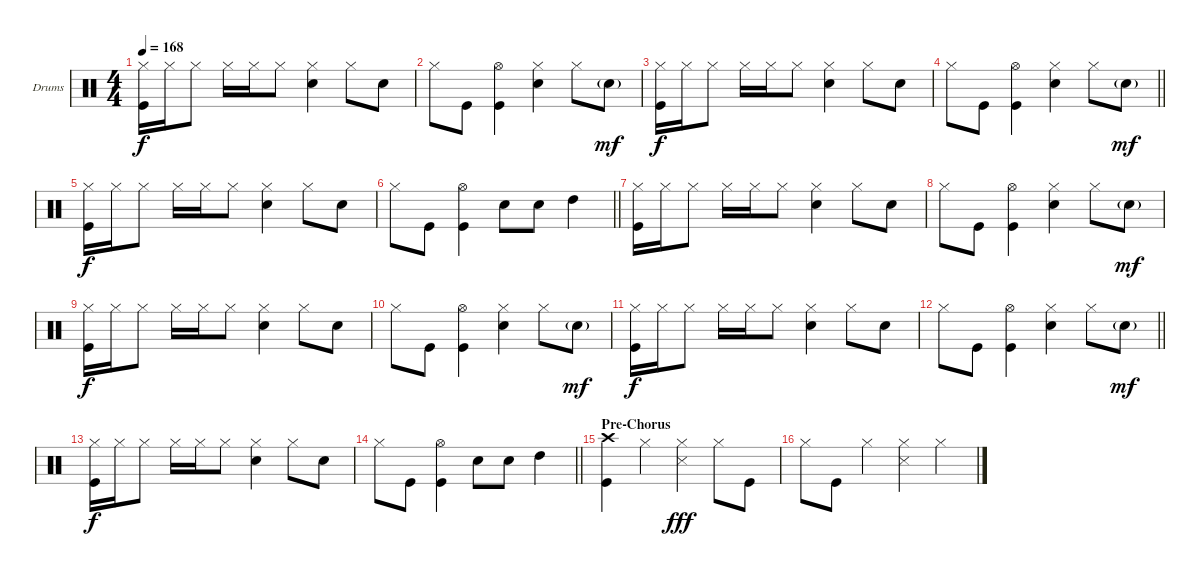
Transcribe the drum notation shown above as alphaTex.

\bracketExtendMode groupsimilarinstruments
\firstSystemTrackNameOrientation horizontal
\otherSystemsTrackNameOrientation horizontal
\track ("Drumkit" "Drums") {solo instrument percussion}
\staff {score}
\articulation defaults
\ts (4 4)
\tempo 168
\clef neutral
\ks c
("Hi-Hat (closed)" "Kick (hit)").16{dy f} "Hi-Hat (closed)".16 "Hi-Hat (closed)".8 "Hi-Hat (closed)".16 "Hi-Hat (closed)".16 "Hi-Hat (closed)".8 ("Hi-Hat (closed)" "Snare (hit) 2").4 "Hi-Hat (closed)".8 "Snare (hit) 2".8 |
"Hi-Hat (closed)".8 "Kick (hit)".8 ("Hi-Hat (open)" "Kick (hit)").4 ("Hi-Hat (closed)" "Snare (hit) 2").4 "Hi-Hat (closed)".8 "Snare (hit) 2"{g}.8{dy mf} |
("Hi-Hat (closed)" "Kick (hit)").16{dy f} "Hi-Hat (closed)".16 "Hi-Hat (closed)".8 "Hi-Hat (closed)".16 "Hi-Hat (closed)".16 "Hi-Hat (closed)".8 ("Hi-Hat (closed)" "Snare (hit) 2").4 "Hi-Hat (closed)".8 "Snare (hit) 2".8 |
\barLineRight lightlight "Hi-Hat (closed)".8 "Kick (hit)".8
("Hi-Hat (open)" "Kick (hit)").4 ("Hi-Hat (closed)" "Snare (hit) 2").4 "Hi-Hat (closed)".8 "Snare (hit) 2"{g}.8{dy mf} |
("Hi-Hat (closed)" "Kick (hit)").16{dy f} "Hi-Hat (closed)".16 "Hi-Hat (closed)".8 "Hi-Hat (closed)".16 "Hi-Hat (closed)".16 "Hi-Hat (closed)".8 ("Hi-Hat (closed)" "Snare (hit) 2").4 "Hi-Hat (closed)".8 "Snare (hit) 2".8 |
\barLineRight lightlight "Hi-Hat (closed)".8 "Kick (hit)".8
("Hi-Hat (open)" "Kick (hit)").4 "Snare (hit) 2".8 "Snare (hit) 2".8 "High Tom (hit)".4 |
("Hi-Hat (closed)" "Kick (hit)").16 "Hi-Hat (closed)".16 "Hi-Hat (closed)".8 "Hi-Hat (closed)".16 "Hi-Hat (closed)".16 "Hi-Hat (closed)".8 ("Hi-Hat (closed)" "Snare (hit) 2").4 "Hi-Hat (closed)".8 "Snare (hit) 2".8 |
"Hi-Hat (closed)".8 "Kick (hit)".8 ("Hi-Hat (open)" "Kick (hit)").4 ("Hi-Hat (closed)" "Snare (hit) 2").4 "Hi-Hat (closed)".8 "Snare (hit) 2"{g}.8{dy mf} |
("Hi-Hat (closed)" "Kick (hit)").16{dy f} "Hi-Hat (closed)".16 "Hi-Hat (closed)".8 "Hi-Hat (closed)".16 "Hi-Hat (closed)".16 "Hi-Hat (closed)".8 ("Hi-Hat (closed)" "Snare (hit) 2").4 "Hi-Hat (closed)".8 "Snare (hit) 2".8 |
"Hi-Hat (closed)".8 "Kick (hit)".8 ("Hi-Hat (open)" "Kick (hit)").4 ("Hi-Hat (closed)" "Snare (hit) 2").4 "Hi-Hat (closed)".8 "Snare (hit) 2"{g}.8{dy mf} |
("Hi-Hat (closed)" "Kick (hit)").16{dy f} "Hi-Hat (closed)".16 "Hi-Hat (closed)".8 "Hi-Hat (closed)".16 "Hi-Hat (closed)".16 "Hi-Hat (closed)".8 ("Hi-Hat (closed)" "Snare (hit) 2").4 "Hi-Hat (closed)".8 "Snare (hit) 2".8 |
\barLineRight lightlight "Hi-Hat (closed)".8 "Kick (hit)".8
("Hi-Hat (open)" "Kick (hit)").4 ("Hi-Hat (closed)" "Snare (hit) 2").4 "Hi-Hat (closed)".8 "Snare (hit) 2"{g}.8{dy mf} |
("Hi-Hat (closed)" "Kick (hit)").16{dy f} "Hi-Hat (closed)".16 "Hi-Hat (closed)".8 "Hi-Hat (closed)".16 "Hi-Hat (closed)".16 "Hi-Hat (closed)".8 ("Hi-Hat (closed)" "Snare (hit) 2").4 "Hi-Hat (closed)".8 "Snare (hit) 2".8 |
\barLineRight lightlight "Hi-Hat (closed)".8 "Kick (hit)".8
("Hi-Hat (open)" "Kick (hit)").4 "Snare (hit) 2".8 "Snare (hit) 2".8 "High Tom (hit)".4 |
\section ("" "Pre-Chorus")
("Crash high (hit)" "Kick (hit)").4 "Hi-Hat (closed)".4 ("Hi-Hat (closed)" "Snare (side stick) 3").4{dy fff} "Hi-Hat (closed)".8 "Kick (hit)".8 |
"Hi-Hat (closed)".8 "Kick (hit)".8 "Hi-Hat (closed)".4 ("Hi-Hat (closed)" "Snare (side stick) 3").4 "Hi-Hat (closed)".4
